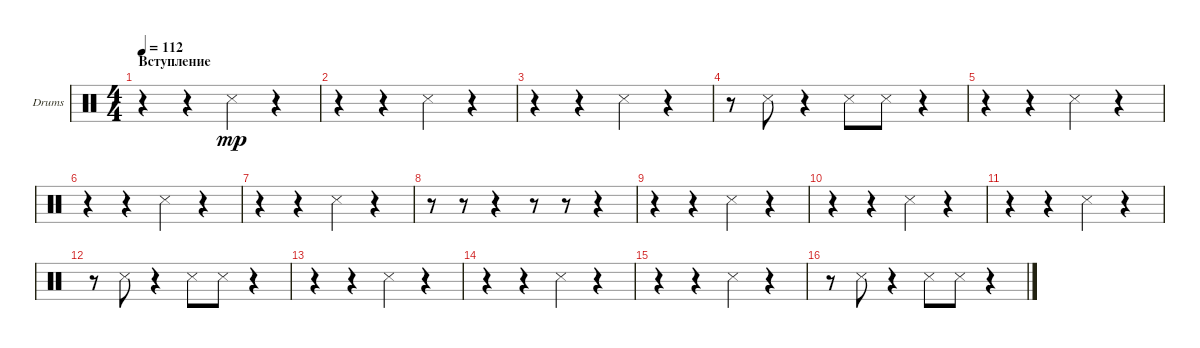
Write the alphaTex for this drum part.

\defaultSystemsLayout 4
\bracketExtendMode groupsimilarinstruments
\firstSystemTrackNameOrientation horizontal
\otherSystemsTrackNameOrientation horizontal
\track ("Drumkit" "Drums") {instrument percussion}
\staff {score}
\articulation defaults
\ts (4 4)
\section ("" "Вступление")
\tempo 112
\clef neutral
\scale
0.472222
\ks c
r.4{dy mp} r.4 "Snare (side stick) 3".4 r.4 |
\scale
0.263889 r.4 r.4 "Snare (side stick) 3".4 r.4 |
\scale
0.263889 r.4 r.4 "Snare (side stick) 3".4 r.4 |
\scale
0.333333 r.8 "Snare (side stick) 3".8 r.4 "Snare (side stick) 3".8 "Snare (side stick) 3".8 r.4 |
\scale
0.333333 r.4 r.4 "Snare (side stick) 3".4 r.4 |
\scale
0.333333 r.4 r.4 "Snare (side stick) 3".4 r.4 |
\scale
0.333333 r.4 r.4 "Snare (side stick) 3".4 r.4 |
\scale
0.333333 r.8 r.8 r.4 r.8 r.8 r.4 |
\scale
0.333333 r.4 r.4 "Snare (side stick) 3".4 r.4 |
\scale
0.333333 r.4 r.4 "Snare (side stick) 3".4 r.4 |
\scale
0.333333 r.4 r.4 "Snare (side stick) 3".4 r.4 |
\scale
0.333333 r.8 "Snare (side stick) 3".8 r.4 "Snare (side stick) 3".8 "Snare (side stick) 3".8 r.4 |
\scale
0.333333 r.4 r.4 "Snare (side stick) 3".4 r.4 |
\scale
0.333333 r.4 r.4 "Snare (side stick) 3".4 r.4 |
\scale
0.333333 r.4 r.4 "Snare (side stick) 3".4 r.4 |
\scale
0.333333 r.8 "Snare (side stick) 3".8 r.4 "Snare (side stick) 3".8 "Snare (side stick) 3".8 r.4
